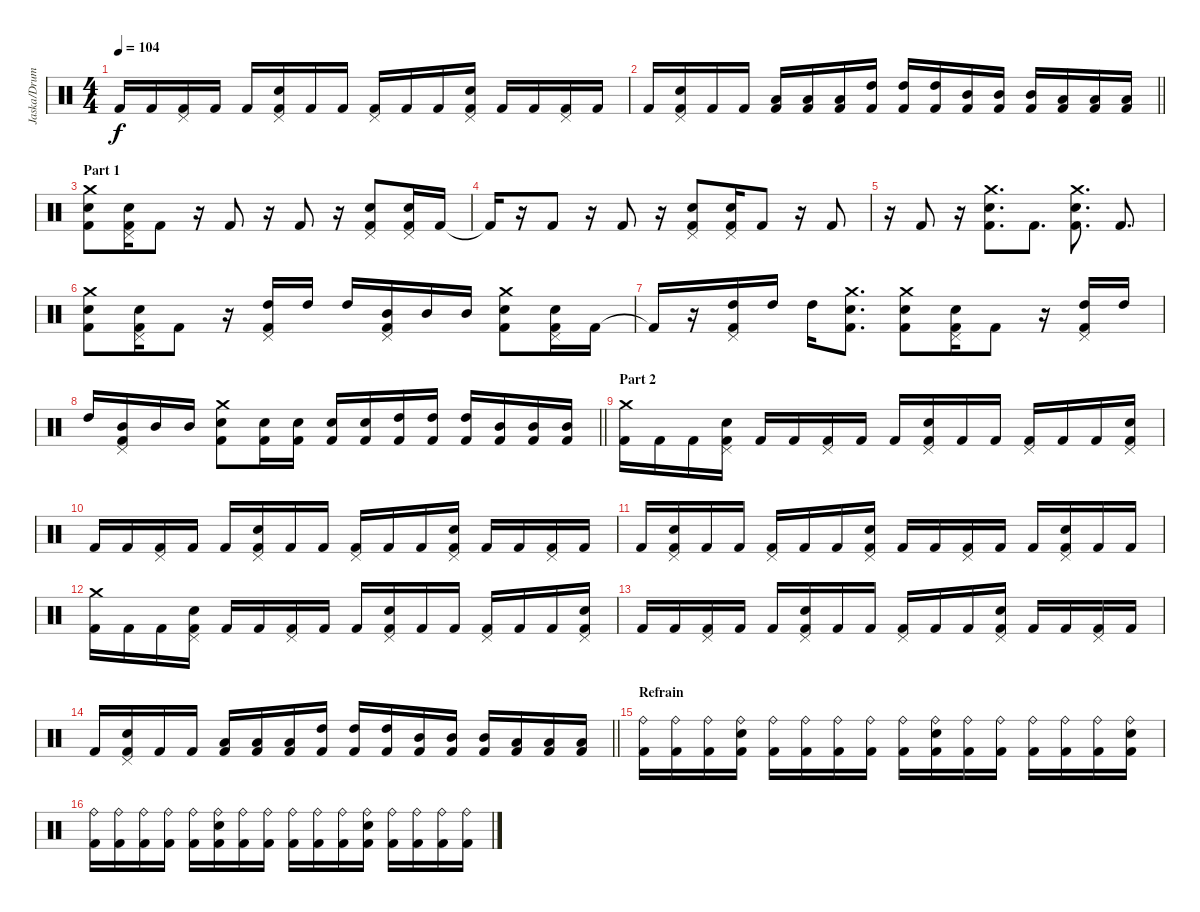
\track ("Jaska/Drums" "Jaska/Drum") {instrument percussion}
\staff {score}
\articulation defaults
\ts (4 4)
\tempo 104
\clef neutral
\ks c "Kick (hit) 2".16{dy f} "Kick (hit) 2".16
("Pedal Hi-Hat (hit)" "Kick (hit) 2").16 "Kick (hit) 2".16 "Kick (hit) 2".16 ("Snare (hit) 2" "Pedal Hi-Hat (hit)" "Kick (hit) 2").16 "Kick (hit) 2".16 "Kick (hit) 2".16 ("Pedal Hi-Hat (hit)" "Kick (hit) 2").16 "Kick (hit) 2".16 "Kick (hit) 2".16 ("Snare (hit) 2" "Pedal Hi-Hat (hit)" "Kick (hit) 2").16 "Kick (hit) 2".16 "Kick (hit) 2".16 ("Pedal Hi-Hat (hit)" "Kick (hit) 2").16 "Kick (hit) 2".16 |
\barLineRight lightlight "Kick (hit) 2".16
("Snare (hit) 2" "Pedal Hi-Hat (hit)" "Kick (hit) 2").16 "Kick (hit) 2".16 "Kick (hit) 2".16 ("Low Tom (hit)" "Kick (hit) 2").16 ("Low Tom (hit)" "Kick (hit) 2").16 ("Low Tom (hit)" "Kick (hit) 2").16 ("High Tom (hit)" "Kick (hit) 2").16 ("High Tom (hit)" "Kick (hit) 2").16 ("High Tom (hit)" "Kick (hit) 2").16 ("Mid Tom (hit)" "Kick (hit) 2").16 ("Mid Tom (hit)" "Kick (hit) 2").16 ("Mid Tom (hit)" "Kick (hit) 2").16 ("Low Floor Tom (hit)" "Kick (hit) 2").16 ("Low Floor Tom (hit)" "Kick (hit) 2").16 ("Low Floor Tom (hit)" "Kick (hit) 2").16 |
\section ("" "Part 1")
("Snare (hit) 2" "Crash medium (hit)" "Kick (hit) 2").8 ("Snare (hit) 2" "Pedal Hi-Hat (hit)" "Kick (hit) 2").16 "Kick (hit) 2".8 r.16 "Kick (hit) 2".8 r.16 "Kick (hit) 2".8 r.16 ("Snare (hit) 2" "Pedal Hi-Hat (hit)" "Kick (hit) 2").8 ("Snare (hit) 2" "Pedal Hi-Hat (hit)" "Kick (hit) 2").16 "Kick (hit) 2".16 |
"Kick (hit) 2"{t}.16 r.16 "Kick (hit) 2".8 r.16 "Kick (hit) 2".8 r.16 ("Snare (hit) 2" "Pedal Hi-Hat (hit)" "Kick (hit) 2").8 ("Snare (hit) 2" "Pedal Hi-Hat (hit)" "Kick (hit) 2").16 "Kick (hit) 2".8 r.16 "Kick (hit) 2".8 |
r.16 "Kick (hit) 2".8 r.16 ("Snare (hit) 2" "Crash medium (hit)" "Kick (hit) 2").8{d} "Kick (hit) 2".8{d} ("Snare (hit) 2" "Crash medium (hit)" "Kick (hit) 2").8{d} "Kick (hit) 2".8{d} |
("Snare (hit) 2" "Crash medium (hit)" "Kick (hit) 2").8 ("Snare (hit) 2" "Pedal Hi-Hat (hit)" "Kick (hit) 2").16 "Kick (hit) 2".8 r.16 ("High Tom (hit)" "Pedal Hi-Hat (hit)" "Kick (hit) 2").16 "High Tom (hit)".16 "High Tom (hit)".16 ("Mid Tom (hit)" "Pedal Hi-Hat (hit)" "Kick (hit) 2").16 "Mid Tom (hit)".16 "Mid Tom (hit)".16 ("Snare (hit) 2" "Crash medium (hit)" "Kick (hit) 2").8 ("Snare (hit) 2" "Pedal Hi-Hat (hit)" "Kick (hit) 2").16 "Kick (hit) 2".16 |
"Kick (hit) 2"{t}.16 r.16 ("High Tom (hit)" "Pedal Hi-Hat (hit)" "Kick (hit) 2").16 "High Tom (hit)".16 "High Tom (hit)".16 ("Snare (hit) 2" "Crash medium (hit)" "Kick (hit) 2").8{d} ("Snare (hit) 2" "Crash medium (hit)" "Kick (hit) 2").8 ("Snare (hit) 2" "Pedal Hi-Hat (hit)" "Kick (hit) 2").16 "Kick (hit) 2".8 r.16 ("High Tom (hit)" "Pedal Hi-Hat (hit)" "Kick (hit) 2").16 "High Tom (hit)".16 |
\barLineRight lightlight "High Tom (hit)".16
("Mid Tom (hit)" "Pedal Hi-Hat (hit)" "Kick (hit) 2").16 "Mid Tom (hit)".16 "Mid Tom (hit)".16 ("Snare (hit) 2" "Crash medium (hit)" "Kick (hit) 2").8 ("Snare (hit) 2" "Kick (hit) 2").16 ("Snare (hit) 2" "Kick (hit) 2").16 ("Snare (hit) 2" "Kick (hit) 2").16 ("Snare (hit) 2" "Kick (hit) 2").16 ("High Tom (hit)" "Kick (hit) 2").16 ("High Tom (hit)" "Kick (hit) 2").16 ("High Tom (hit)" "Kick (hit) 2").16 ("Mid Tom (hit)" "Kick (hit) 2").16 ("Mid Tom (hit)" "Kick (hit) 2").16 ("Mid Tom (hit)" "Kick (hit) 2").16 |
\section ("" "Part 2")
("Crash medium (hit)" "Kick (hit) 2").16 "Kick (hit) 2".16 "Kick (hit) 2".16 ("Snare (hit) 2" "Pedal Hi-Hat (hit)" "Kick (hit) 2").16 "Kick (hit) 2".16 "Kick (hit) 2".16 ("Pedal Hi-Hat (hit)" "Kick (hit) 2").16 "Kick (hit) 2".16 "Kick (hit) 2".16 ("Snare (hit) 2" "Pedal Hi-Hat (hit)" "Kick (hit) 2").16 "Kick (hit) 2".16 "Kick (hit) 2".16 ("Pedal Hi-Hat (hit)" "Kick (hit) 2").16 "Kick (hit) 2".16 "Kick (hit) 2".16 ("Snare (hit) 2" "Pedal Hi-Hat (hit)" "Kick (hit) 2").16 |
"Kick (hit) 2".16 "Kick (hit) 2".16 ("Pedal Hi-Hat (hit)" "Kick (hit) 2").16 "Kick (hit) 2".16 "Kick (hit) 2".16 ("Snare (hit) 2" "Pedal Hi-Hat (hit)" "Kick (hit) 2").16 "Kick (hit) 2".16 "Kick (hit) 2".16 ("Pedal Hi-Hat (hit)" "Kick (hit) 2").16 "Kick (hit) 2".16 "Kick (hit) 2".16 ("Snare (hit) 2" "Pedal Hi-Hat (hit)" "Kick (hit) 2").16 "Kick (hit) 2".16 "Kick (hit) 2".16 ("Pedal Hi-Hat (hit)" "Kick (hit) 2").16 "Kick (hit) 2".16 |
"Kick (hit) 2".16 ("Snare (hit) 2" "Pedal Hi-Hat (hit)" "Kick (hit) 2").16 "Kick (hit) 2".16 "Kick (hit) 2".16 ("Pedal Hi-Hat (hit)" "Kick (hit) 2").16 "Kick (hit) 2".16 "Kick (hit) 2".16 ("Snare (hit) 2" "Pedal Hi-Hat (hit)" "Kick (hit) 2").16 "Kick (hit) 2".16 "Kick (hit) 2".16 ("Pedal Hi-Hat (hit)" "Kick (hit) 2").16 "Kick (hit) 2".16 "Kick (hit) 2".16 ("Snare (hit) 2" "Pedal Hi-Hat (hit)" "Kick (hit) 2").16 "Kick (hit) 2".16 "Kick (hit) 2".16 |
("Crash medium (hit)" "Kick (hit) 2").16 "Kick (hit) 2".16 "Kick (hit) 2".16 ("Snare (hit) 2" "Pedal Hi-Hat (hit)" "Kick (hit) 2").16 "Kick (hit) 2".16 "Kick (hit) 2".16 ("Pedal Hi-Hat (hit)" "Kick (hit) 2").16 "Kick (hit) 2".16 "Kick (hit) 2".16 ("Snare (hit) 2" "Pedal Hi-Hat (hit)" "Kick (hit) 2").16 "Kick (hit) 2".16 "Kick (hit) 2".16 ("Pedal Hi-Hat (hit)" "Kick (hit) 2").16 "Kick (hit) 2".16 "Kick (hit) 2".16 ("Snare (hit) 2" "Pedal Hi-Hat (hit)" "Kick (hit) 2").16 |
"Kick (hit) 2".16 "Kick (hit) 2".16 ("Pedal Hi-Hat (hit)" "Kick (hit) 2").16 "Kick (hit) 2".16 "Kick (hit) 2".16 ("Snare (hit) 2" "Pedal Hi-Hat (hit)" "Kick (hit) 2").16 "Kick (hit) 2".16 "Kick (hit) 2".16 ("Pedal Hi-Hat (hit)" "Kick (hit) 2").16 "Kick (hit) 2".16 "Kick (hit) 2".16 ("Snare (hit) 2" "Pedal Hi-Hat (hit)" "Kick (hit) 2").16 "Kick (hit) 2".16 "Kick (hit) 2".16 ("Pedal Hi-Hat (hit)" "Kick (hit) 2").16 "Kick (hit) 2".16 |
\barLineRight lightlight "Kick (hit) 2".16
("Snare (hit) 2" "Pedal Hi-Hat (hit)" "Kick (hit) 2").16 "Kick (hit) 2".16 "Kick (hit) 2".16 ("Low Tom (hit)" "Kick (hit) 2").16 ("Low Tom (hit)" "Kick (hit) 2").16 ("Low Tom (hit)" "Kick (hit) 2").16 ("High Tom (hit)" "Kick (hit) 2").16 ("High Tom (hit)" "Kick (hit) 2").16 ("High Tom (hit)" "Kick (hit) 2").16 ("Mid Tom (hit)" "Kick (hit) 2").16 ("Mid Tom (hit)" "Kick (hit) 2").16 ("Mid Tom (hit)" "Kick (hit) 2").16 ("Low Floor Tom (hit)" "Kick (hit) 2").16 ("Low Floor Tom (hit)" "Kick (hit) 2").16 ("Low Floor Tom (hit)" "Kick (hit) 2").16 |
\section ("" "Refrain")
("Ride (bell)" "Kick (hit) 2").16 ("Ride (bell)" "Kick (hit) 2").16 ("Ride (bell)" "Kick (hit) 2").16 ("Snare (hit) 2" "Ride (bell)" "Kick (hit) 2").16 ("Ride (bell)" "Kick (hit) 2").16 ("Ride (bell)" "Kick (hit) 2").16 ("Ride (bell)" "Kick (hit) 2").16 ("Ride (bell)" "Kick (hit) 2").16 ("Ride (bell)" "Kick (hit) 2").16 ("Snare (hit) 2" "Ride (bell)" "Kick (hit) 2").16 ("Ride (bell)" "Kick (hit) 2").16 ("Ride (bell)" "Kick (hit) 2").16 ("Ride (bell)" "Kick (hit) 2").16 ("Ride (bell)" "Kick (hit) 2").16 ("Ride (bell)" "Kick (hit) 2").16 ("Snare (hit) 2" "Ride (bell)" "Kick (hit) 2").16 |
("Ride (bell)" "Kick (hit) 2").16 ("Ride (bell)" "Kick (hit) 2").16 ("Ride (bell)" "Kick (hit) 2").16 ("Ride (bell)" "Kick (hit) 2").16 ("Ride (bell)" "Kick (hit) 2").16 ("Snare (hit) 2" "Ride (bell)" "Kick (hit) 2").16 ("Ride (bell)" "Kick (hit) 2").16 ("Ride (bell)" "Kick (hit) 2").16 ("Ride (bell)" "Kick (hit) 2").16 ("Ride (bell)" "Kick (hit) 2").16 ("Ride (bell)" "Kick (hit) 2").16 ("Snare (hit) 2" "Ride (bell)" "Kick (hit) 2").16 ("Ride (bell)" "Kick (hit) 2").16 ("Ride (bell)" "Kick (hit) 2").16 ("Ride (bell)" "Kick (hit) 2").16 ("Ride (bell)" "Kick (hit) 2").16
